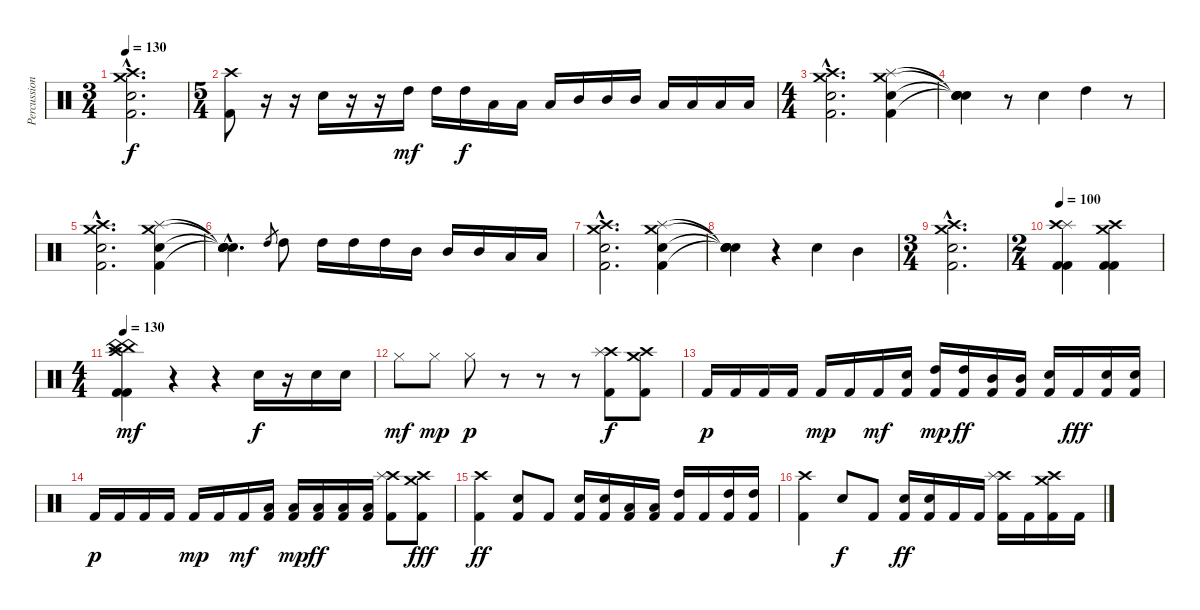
\track ("Percussion" "Percussion") {instrument percussion}
\staff {score}
\articulation defaults
\ts (3 4)
\tempo 130
\clef neutral
\ks c
("Crash high (hit)"{hac} "Crash medium (hit)"{hac} "Snare (hit) 2"{hac} "Kick (hit) 2"{hac}).2{d dy f} |
\ts (5 4)
("Crash high (hit)" "Kick (hit) 2").8 r.16 r.16 "Snare (hit) 2".16 r.16 r.16 "High Tom (hit)".16{dy mf} "High Tom (hit)".16 "High Tom (hit)".16{dy f} "Low Tom (hit)".16 "Low Tom (hit)".16 "Low Tom (hit)".16 "Mid Tom (hit)".16 "Mid Tom (hit)".16 "Mid Tom (hit)".16 "Low Floor Tom (hit)".16 "Low Floor Tom (hit)".16 "Low Floor Tom (hit)".16 "Low Floor Tom (hit)".16 |
\ts (4 4)
("Crash high (hit)"{hac} "Crash medium (hit)"{hac} "Snare (hit) 2"{hac} "Kick (hit) 2"{hac}).2{d} ("Splash (hit)" "Crash medium (hit)" "Snare (hit) 2" "Kick (hit) 2").4 |
("Snare (hit)"{t} "Snare (hit)"{t} "Snare (hit)"{t} "Snare (hit)"{t}).4 r.8 "Snare (hit) 2".4 "High Tom (hit)".4 r.8 |
("Crash high (hit)"{hac} "Crash medium (hit)"{hac} "Snare (hit) 2"{hac} "Kick (hit) 2"{hac}).2{d} ("Splash (hit)" "Crash medium (hit)" "Snare (hit) 2" "Kick (hit) 2").4 |
("Snare (hit)"{hac t} "Snare (hit)"{hac t} "Snare (hit)"{hac t} "Snare (hit)"{hac t}).4{d} "High Tom (hit)".8{gr} "High Tom (hit)".8 "High Tom (hit)".16 "High Tom (hit)".16 "High Tom (hit)".16 "Mid Tom (hit)".16 "Mid Tom (hit)".16 "Mid Tom (hit)".16 "Low Tom (hit)".16 "Low Tom (hit)".16 |
("Crash high (hit)"{hac} "Crash medium (hit)"{hac} "Snare (hit) 2"{hac} "Kick (hit) 2"{hac}).2{d} ("Splash (hit)" "Crash medium (hit)" "Snare (hit) 2" "Kick (hit) 2").4 |
("Snare (hit)"{t} "Snare (hit)"{t} "Snare (hit)"{t} "Snare (hit)"{t}).4 r.4 "Snare (hit) 2".4 "Mid Tom (hit)".4 |
\ts (3 4)
("Crash high (hit)"{hac} "Crash medium (hit)"{hac} "Snare (hit) 2"{hac} "Kick (hit) 2"{hac}).2{d} |
\ts (2 4)
\tempo 100
("Splash (hit)" "Crash high (hit)" "Kick (hit) 2" "Kick (hit) 2").4 ("Crash high (hit)" "Crash medium (hit)" "Kick (hit) 2" "Kick (hit) 2").4 |
\ts (4 4)
\tempo 130
("China (hit)" "China (hit)" "Crash high (hit)" "Kick (hit) 2" "Kick (hit) 2").4{dy mf} r.4 r.4 "Snare (hit) 2".16{dy f} r.16 "Snare (hit) 2".16 "Snare (hit) 2".16 |
"Hi-Hat (closed)".8{dy mf} "Hi-Hat (closed)".8{dy mp} "Hi-Hat (closed)".8{dy p} r.8 r.8 r.8 ("Crash high (hit)" "Splash (hit)" "Kick (hit) 2").8{dy f} ("Crash high (hit)" "Crash medium (hit)" "Kick (hit) 2").8 |
"Kick (hit) 2".16{dy p} "Kick (hit) 2".16 "Kick (hit) 2".16 "Kick (hit) 2".16 "Kick (hit) 2".16{dy mp} "Kick (hit) 2".16 "Kick (hit) 2".16{dy mf} ("Snare (hit) 2" "Kick (hit) 2").16 ("High Tom (hit)" "Kick (hit) 2").16{dy mp} ("High Tom (hit)" "Kick (hit) 2").16{dy ff} ("Mid Tom (hit)" "Kick (hit) 2").16 ("Mid Tom (hit)" "Kick (hit) 2").16 ("Snare (hit) 2" "Kick (hit) 2").16 "Kick (hit) 2".16{dy fff} ("Snare (hit) 2" "Kick (hit) 2").16 ("Snare (hit) 2" "Kick (hit) 2").16 |
"Kick (hit) 2".16{dy p} "Kick (hit) 2".16 "Kick (hit) 2".16 "Kick (hit) 2".16 "Kick (hit) 2".16{dy mp} "Kick (hit) 2".16 "Kick (hit) 2".16{dy mf} ("Low Floor Tom (hit)" "Kick (hit) 2").16 ("Low Floor Tom (hit)" "Kick (hit) 2").16{dy mp} ("Low Floor Tom (hit)" "Kick (hit) 2").16{dy ff} ("Low Floor Tom (hit)" "Kick (hit) 2").16 ("Low Floor Tom (hit)" "Kick (hit) 2").16 ("Crash high (hit)" "Splash (hit)" "Kick (hit) 2").8 ("Crash high (hit)" "Crash medium (hit)" "Kick (hit) 2").8{dy fff} |
("Crash high (hit)" "Kick (hit) 2").4{dy ff} ("Snare (hit) 2" "Kick (hit) 2").8 "Kick (hit) 2".8 ("Snare (hit) 2" "Kick (hit) 2").16 ("Snare (hit) 2" "Kick (hit) 2").16 ("Low Tom (hit)" "Kick (hit) 2").16 ("Low Tom (hit)" "Kick (hit) 2").16 ("High Tom (hit)" "Kick (hit) 2").16 "Kick (hit) 2".16 ("High Tom (hit)" "Kick (hit) 2").16 ("High Tom (hit)" "Kick (hit) 2").16 |
("Crash high (hit)" "Kick (hit) 2").4 "Snare (hit) 2".8{dy f} "Kick (hit) 2".8 ("Snare (hit) 2" "Kick (hit) 2").16{dy ff} ("Snare (hit) 2" "Kick (hit) 2").16 "Kick (hit) 2".16 "Kick (hit) 2".16 ("Crash high (hit)" "Splash (hit)" "Kick (hit) 2").16 "Kick (hit) 2".16 ("Crash high (hit)" "Crash medium (hit)" "Kick (hit) 2").16 "Kick (hit) 2".16
